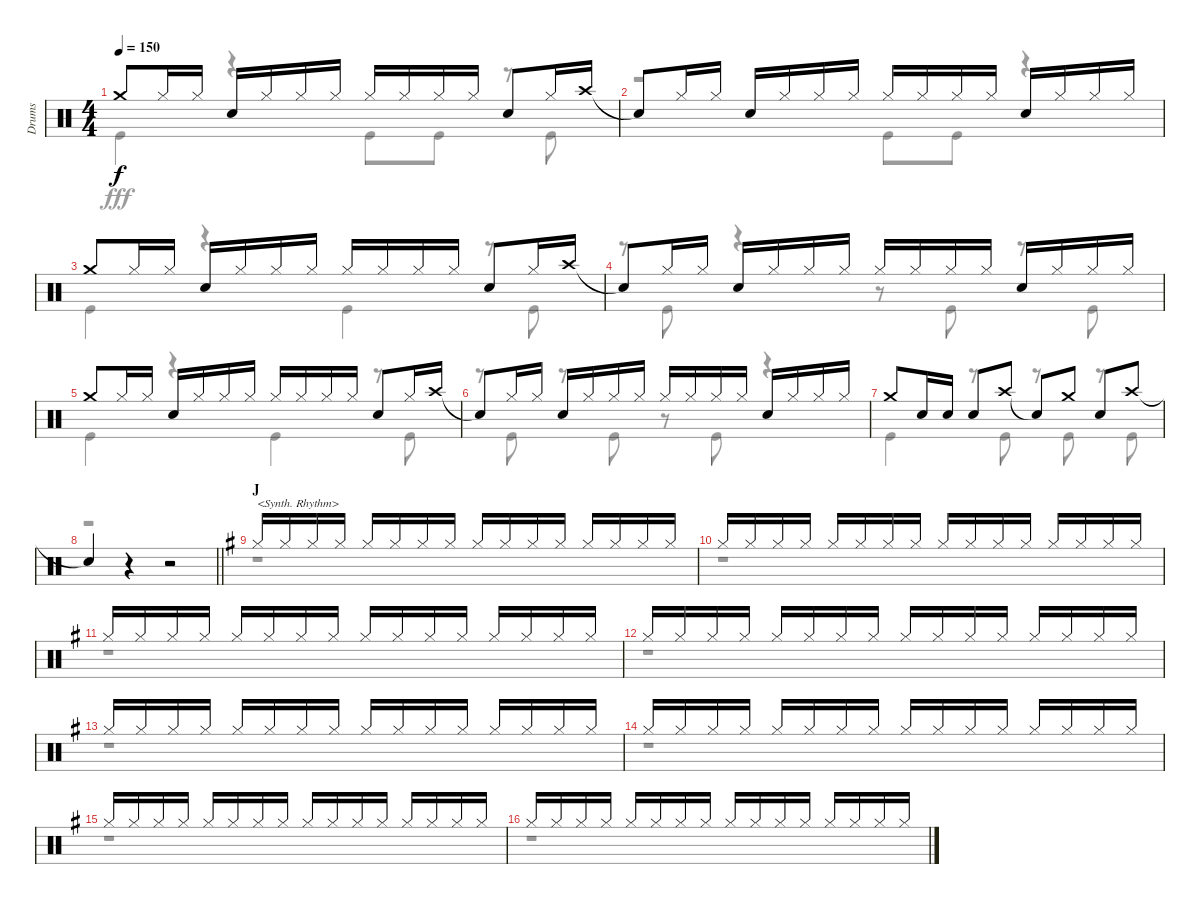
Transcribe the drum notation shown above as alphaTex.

\track ("Drums" "Drums") {instrument percussion}
\staff {score}
\articulation defaults
\voice
\ts (4 4)
\tempo 150
\clef neutral
\ks c "Crash medium (hit)".8{dy f} "Hi-Hat (closed)".16 "Hi-Hat (closed)".16 "Snare (hit) 2".16 "Hi-Hat (closed)".16 "Hi-Hat (closed)".16 "Hi-Hat (closed)".16 "Hi-Hat (closed)".16 "Hi-Hat (closed)".16 "Hi-Hat (closed)".16 "Hi-Hat (closed)".16 "Snare (hit) 2".8 "Hi-Hat (closed)".16 "Crash high (hit)".16
|
"Snare (hit)"{t}.8 "Hi-Hat (closed)".16 "Hi-Hat (closed)".16 "Snare (hit) 2".16 "Hi-Hat (closed)".16 "Hi-Hat (closed)".16 "Hi-Hat (closed)".16 "Hi-Hat (closed)".16 "Hi-Hat (closed)".16 "Hi-Hat (closed)".16 "Hi-Hat (closed)".16 "Snare (hit) 2".16 "Hi-Hat (closed)".16 "Hi-Hat (closed)".16 "Hi-Hat (closed)".16 |
"Crash medium (hit)".8 "Hi-Hat (closed)".16 "Hi-Hat (closed)".16 "Snare (hit) 2".16 "Hi-Hat (closed)".16 "Hi-Hat (closed)".16 "Hi-Hat (closed)".16 "Hi-Hat (closed)".16 "Hi-Hat (closed)".16 "Hi-Hat (closed)".16 "Hi-Hat (closed)".16 "Snare (hit) 2".8 "Hi-Hat (closed)".16 "Crash high (hit)".16 |
"Snare (hit)"{t}.8 "Hi-Hat (closed)".16 "Hi-Hat (closed)".16 "Snare (hit) 2".16 "Hi-Hat (closed)".16 "Hi-Hat (closed)".16 "Hi-Hat (closed)".16 "Hi-Hat (closed)".16 "Hi-Hat (closed)".16 "Hi-Hat (closed)".16 "Hi-Hat (closed)".16 "Snare (hit) 2".16 "Hi-Hat (closed)".16 "Hi-Hat (closed)".16 "Hi-Hat (closed)".16 |
"Crash medium (hit)".8 "Hi-Hat (closed)".16 "Hi-Hat (closed)".16 "Snare (hit) 2".16 "Hi-Hat (closed)".16 "Hi-Hat (closed)".16 "Hi-Hat (closed)".16 "Hi-Hat (closed)".16 "Hi-Hat (closed)".16 "Hi-Hat (closed)".16 "Hi-Hat (closed)".16 "Snare (hit) 2".8 "Hi-Hat (closed)".16 "Crash high (hit)".16 |
"Snare (hit)"{t}.8 "Hi-Hat (closed)".16 "Hi-Hat (closed)".16 "Snare (hit) 2".16 "Hi-Hat (closed)".16 "Hi-Hat (closed)".16 "Hi-Hat (closed)".16 "Hi-Hat (closed)".16 "Hi-Hat (closed)".16 "Hi-Hat (closed)".16 "Hi-Hat (closed)".16 "Snare (hit) 2".16 "Hi-Hat (closed)".16 "Hi-Hat (closed)".16 "Hi-Hat (closed)".16 |
"Crash medium (hit)".8 "Snare (hit) 2".16 "Snare (hit) 2".16 "Snare (hit) 2".8 "Crash high (hit)".8 "Snare (hit)"{t}.8 "Crash medium (hit)".8 "Snare (hit) 2".8 "Crash high (hit)".8 |
\barLineRight lightlight "Snare (hit)"{t}.4
r.4 r.2 |
\section ("" "J")
\ks g "Hi-Hat (closed)".16{txt "<Synth. Rhythm>"} "Hi-Hat (closed)".16 "Hi-Hat (closed)".16 "Hi-Hat (closed)".16 "Hi-Hat (closed)".16 "Hi-Hat (closed)".16 "Hi-Hat (closed)".16 "Hi-Hat (closed)".16 "Hi-Hat (closed)".16 "Hi-Hat (closed)".16 "Hi-Hat (closed)".16 "Hi-Hat (closed)".16 "Hi-Hat (closed)".16 "Hi-Hat (closed)".16 "Hi-Hat (closed)".16 "Hi-Hat (closed)".16
|
"Hi-Hat (closed)".16 "Hi-Hat (closed)".16 "Hi-Hat (closed)".16 "Hi-Hat (closed)".16 "Hi-Hat (closed)".16 "Hi-Hat (closed)".16 "Hi-Hat (closed)".16 "Hi-Hat (closed)".16 "Hi-Hat (closed)".16 "Hi-Hat (closed)".16 "Hi-Hat (closed)".16 "Hi-Hat (closed)".16 "Hi-Hat (closed)".16 "Hi-Hat (closed)".16 "Hi-Hat (closed)".16 "Hi-Hat (closed)".16 |
"Hi-Hat (closed)".16 "Hi-Hat (closed)".16 "Hi-Hat (closed)".16 "Hi-Hat (closed)".16 "Hi-Hat (closed)".16 "Hi-Hat (closed)".16 "Hi-Hat (closed)".16 "Hi-Hat (closed)".16 "Hi-Hat (closed)".16 "Hi-Hat (closed)".16 "Hi-Hat (closed)".16 "Hi-Hat (closed)".16 "Hi-Hat (closed)".16 "Hi-Hat (closed)".16 "Hi-Hat (closed)".16 "Hi-Hat (closed)".16 |
"Hi-Hat (closed)".16 "Hi-Hat (closed)".16 "Hi-Hat (closed)".16 "Hi-Hat (closed)".16 "Hi-Hat (closed)".16 "Hi-Hat (closed)".16 "Hi-Hat (closed)".16 "Hi-Hat (closed)".16 "Hi-Hat (closed)".16 "Hi-Hat (closed)".16 "Hi-Hat (closed)".16 "Hi-Hat (closed)".16 "Hi-Hat (closed)".16 "Hi-Hat (closed)".16 "Hi-Hat (closed)".16 "Hi-Hat (closed)".16 |
"Hi-Hat (closed)".16 "Hi-Hat (closed)".16 "Hi-Hat (closed)".16 "Hi-Hat (closed)".16 "Hi-Hat (closed)".16 "Hi-Hat (closed)".16 "Hi-Hat (closed)".16 "Hi-Hat (closed)".16 "Hi-Hat (closed)".16 "Hi-Hat (closed)".16 "Hi-Hat (closed)".16 "Hi-Hat (closed)".16 "Hi-Hat (closed)".16 "Hi-Hat (closed)".16 "Hi-Hat (closed)".16 "Hi-Hat (closed)".16 |
"Hi-Hat (closed)".16 "Hi-Hat (closed)".16 "Hi-Hat (closed)".16 "Hi-Hat (closed)".16 "Hi-Hat (closed)".16 "Hi-Hat (closed)".16 "Hi-Hat (closed)".16 "Hi-Hat (closed)".16 "Hi-Hat (closed)".16 "Hi-Hat (closed)".16 "Hi-Hat (closed)".16 "Hi-Hat (closed)".16 "Hi-Hat (closed)".16 "Hi-Hat (closed)".16 "Hi-Hat (closed)".16 "Hi-Hat (closed)".16 |
"Hi-Hat (closed)".16 "Hi-Hat (closed)".16 "Hi-Hat (closed)".16 "Hi-Hat (closed)".16 "Hi-Hat (closed)".16 "Hi-Hat (closed)".16 "Hi-Hat (closed)".16 "Hi-Hat (closed)".16 "Hi-Hat (closed)".16 "Hi-Hat (closed)".16 "Hi-Hat (closed)".16 "Hi-Hat (closed)".16 "Hi-Hat (closed)".16 "Hi-Hat (closed)".16 "Hi-Hat (closed)".16 "Hi-Hat (closed)".16 |
"Hi-Hat (closed)".16 "Hi-Hat (closed)".16 "Hi-Hat (closed)".16 "Hi-Hat (closed)".16 "Hi-Hat (closed)".16 "Hi-Hat (closed)".16 "Hi-Hat (closed)".16 "Hi-Hat (closed)".16 "Hi-Hat (closed)".16 "Hi-Hat (closed)".16 "Hi-Hat (closed)".16 "Hi-Hat (closed)".16 "Hi-Hat (closed)".16 "Hi-Hat (closed)".16 "Hi-Hat (closed)".16 "Hi-Hat (closed)".16
\voice
\clef neutral
\ottava regular
\simile none
\ks c "Kick (hit)".4{dy fff}
r.4 "Kick (hit)".8 "Kick (hit)".8 r.8 "Kick (hit)".8 |
r.2 "Kick (hit)".8 "Kick (hit)".8 r.4 |
"Kick (hit)".4 r.4 "Kick (hit)".4 r.8 "Kick (hit)".8 |
r.8 "Kick (hit)".8 r.4 r.8 "Kick (hit)".8 r.8 "Kick (hit)".8 |
"Kick (hit)".4 r.4 "Kick (hit)".4 r.8 "Kick (hit)".8 |
r.8 "Kick (hit)".8 r.8 "Kick (hit)".8 r.8 "Kick (hit)".8 r.4 |
"Kick (hit)".4 r.8 "Kick (hit)".8 r.8 "Kick (hit)".8 r.8 "Kick (hit)".8 |
\barLineRight lightlight
r.1 |
\ks g
r.1 |
r.1 |
r.1 |
r.1 |
r.1 |
r.1 |
r.1 |
r.1
